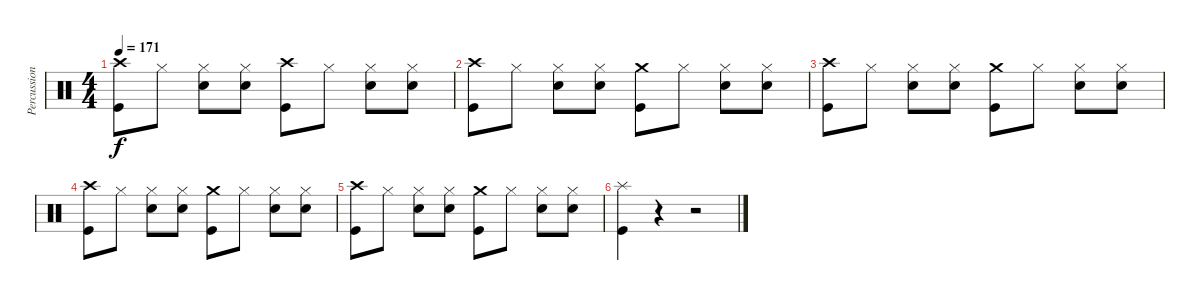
\track ("Percussions" "Percussion") {instrument percussion}
\staff {score}
\articulation defaults
\ts (4 4)
\tempo 171
\clef neutral
\ks c
("Crash high (hit)" "Kick (hit)").8{dy f} "Hi-Hat (closed)".8 ("Hi-Hat (closed)" "Snare (hit) 2").8 ("Hi-Hat (closed)" "Snare (hit) 2").8 ("Crash high (hit)" "Kick (hit)").8 "Hi-Hat (closed)".8 ("Hi-Hat (closed)" "Snare (hit) 2").8 ("Hi-Hat (closed)" "Snare (hit) 2").8 |
("Crash high (hit)" "Kick (hit)").8 "Hi-Hat (closed)".8 ("Hi-Hat (closed)" "Snare (hit) 2").8 ("Hi-Hat (closed)" "Snare (hit) 2").8 ("Crash medium (hit)" "Kick (hit)").8 "Hi-Hat (closed)".8 ("Hi-Hat (closed)" "Snare (hit) 2").8 ("Hi-Hat (closed)" "Snare (hit) 2").8 |
("Crash high (hit)" "Kick (hit)").8 "Hi-Hat (closed)".8 ("Hi-Hat (closed)" "Snare (hit) 2").8 ("Hi-Hat (closed)" "Snare (hit) 2").8 ("Crash medium (hit)" "Kick (hit)").8 "Hi-Hat (closed)".8 ("Hi-Hat (closed)" "Snare (hit) 2").8 ("Hi-Hat (closed)" "Snare (hit) 2").8 |
("Crash high (hit)" "Kick (hit)").8 "Hi-Hat (closed)".8 ("Hi-Hat (closed)" "Snare (hit) 2").8 ("Hi-Hat (closed)" "Snare (hit) 2").8 ("Crash medium (hit)" "Kick (hit)").8 "Hi-Hat (closed)".8 ("Hi-Hat (closed)" "Snare (hit) 2").8 ("Hi-Hat (closed)" "Snare (hit) 2").8 |
("Crash high (hit)" "Kick (hit)").8 "Hi-Hat (closed)".8 ("Hi-Hat (closed)" "Snare (hit) 2").8 ("Hi-Hat (closed)" "Snare (hit) 2").8 ("Crash medium (hit)" "Kick (hit)").8 "Hi-Hat (closed)".8 ("Hi-Hat (closed)" "Snare (hit) 2").8 ("Hi-Hat (closed)" "Snare (hit) 2").8 |
("Splash (hit)" "Kick (hit)").4 r.4 r.2
